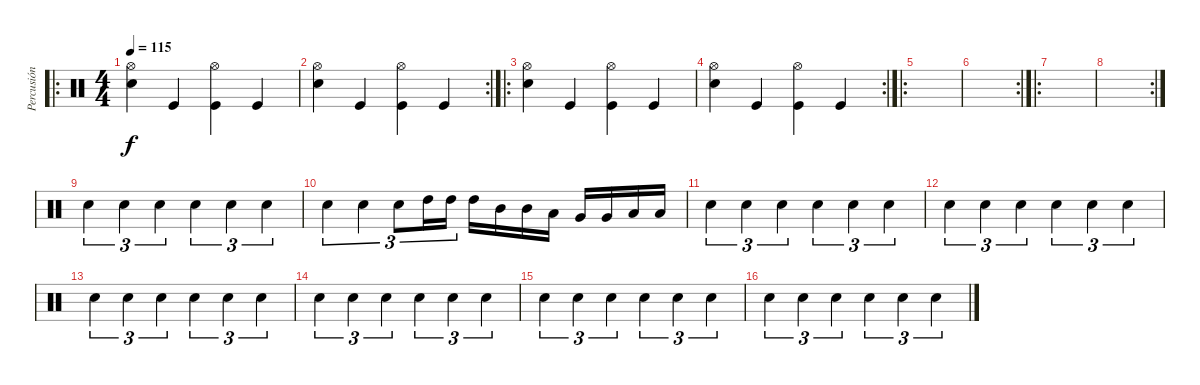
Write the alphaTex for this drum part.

\track ("Percusión" "Percusión") {instrument percussion}
\staff {score}
\articulation defaults
\ro
\ts (4 4)
\tempo 115
\clef neutral
\ks c
("Hi-Hat (open)" "Electric Snare (hit)").4{dy f} "Kick (hit)".4 ("Hi-Hat (open)" "Kick (hit)").4 "Kick (hit)".4 |
\rc 2
("Hi-Hat (open)" "Electric Snare (hit)").4 "Kick (hit)".4 ("Hi-Hat (open)" "Kick (hit)").4 "Kick (hit)".4 |
\ro
("Hi-Hat (open)" "Electric Snare (hit)").4 "Kick (hit)".4 ("Hi-Hat (open)" "Kick (hit)").4 "Kick (hit)".4 |
\rc 2
("Hi-Hat (open)" "Electric Snare (hit)").4 "Kick (hit)".4 ("Hi-Hat (open)" "Kick (hit)").4 "Kick (hit)".4 |
\ro
|
\rc 2
|
\ro
|
\rc 2
|
"Electric Snare (hit)".4{tu (3 2)} "Electric Snare (hit)".4{tu (3 2)} "Electric Snare (hit)".4{tu (3 2)} "Electric Snare (hit)".4{tu (3 2)} "Electric Snare (hit)".4{tu (3 2)} "Electric Snare (hit)".4{tu (3 2)} |
"Electric Snare (hit)".4{tu (3 2)} "Electric Snare (hit)".4{tu (3 2)} "Electric Snare (hit)".8{tu (3 2)} "High Tom (hit)".16{tu (3 2)} "High Tom (hit)".16{tu (3 2)} "High Tom (hit)".16 "Mid Tom (hit)".16 "Mid Tom (hit)".16 "Low Tom (hit)".16 "Very Low Tom (hit)".16 "Very Low Tom (hit)".16 "Low Floor Tom (hit)".16 "Low Floor Tom (hit)".16 |
"Electric Snare (hit)".4{tu (3 2)} "Electric Snare (hit)".4{tu (3 2)} "Electric Snare (hit)".4{tu (3 2)} "Electric Snare (hit)".4{tu (3 2)} "Electric Snare (hit)".4{tu (3 2)} "Electric Snare (hit)".4{tu (3 2)} |
"Electric Snare (hit)".4{tu (3 2)} "Electric Snare (hit)".4{tu (3 2)} "Electric Snare (hit)".4{tu (3 2)} "Electric Snare (hit)".4{tu (3 2)} "Electric Snare (hit)".4{tu (3 2)} "Electric Snare (hit)".4{tu (3 2)} |
"Electric Snare (hit)".4{tu (3 2)} "Electric Snare (hit)".4{tu (3 2)} "Electric Snare (hit)".4{tu (3 2)} "Electric Snare (hit)".4{tu (3 2)} "Electric Snare (hit)".4{tu (3 2)} "Electric Snare (hit)".4{tu (3 2)} |
"Electric Snare (hit)".4{tu (3 2)} "Electric Snare (hit)".4{tu (3 2)} "Electric Snare (hit)".4{tu (3 2)} "Electric Snare (hit)".4{tu (3 2)} "Electric Snare (hit)".4{tu (3 2)} "Electric Snare (hit)".4{tu (3 2)} |
"Electric Snare (hit)".4{tu (3 2)} "Electric Snare (hit)".4{tu (3 2)} "Electric Snare (hit)".4{tu (3 2)} "Electric Snare (hit)".4{tu (3 2)} "Electric Snare (hit)".4{tu (3 2)} "Electric Snare (hit)".4{tu (3 2)} |
"Electric Snare (hit)".4{tu (3 2)} "Electric Snare (hit)".4{tu (3 2)} "Electric Snare (hit)".4{tu (3 2)} "Electric Snare (hit)".4{tu (3 2)} "Electric Snare (hit)".4{tu (3 2)} "Electric Snare (hit)".4{tu (3 2)}
